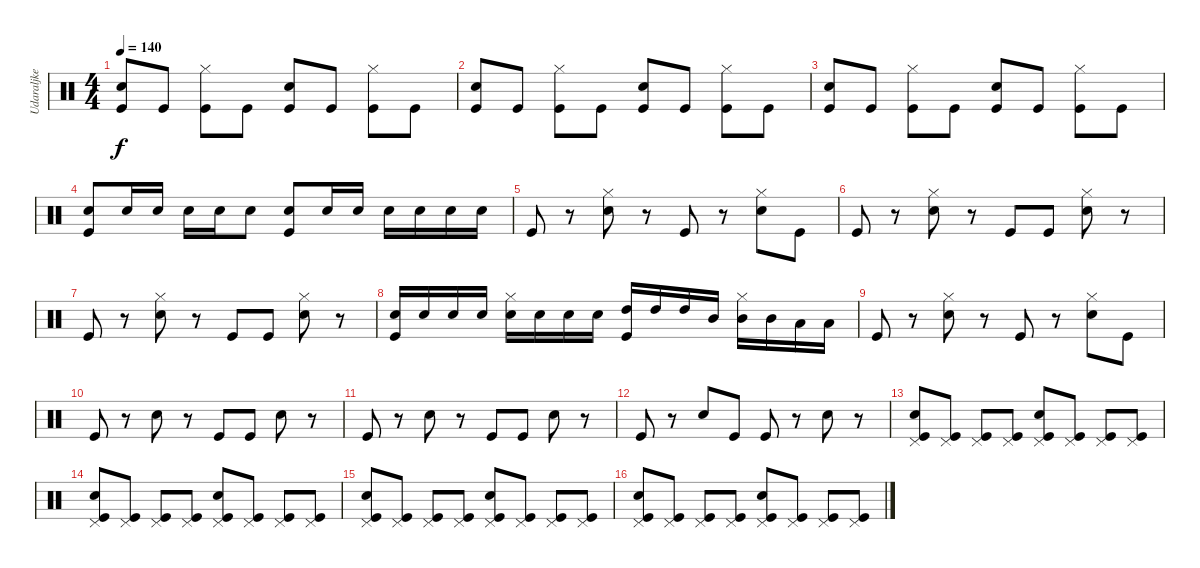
\track ("Udaraljke" "Udaraljke") {instrument percussion}
\staff {score}
\articulation defaults
\ts (4 4)
\tempo 140
\clef neutral
\ks c
("Kick (hit)" "Snare (hit) 2").8{dy f} "Kick (hit)".8 ("Kick (hit)" "Hi-Hat (closed)").8 "Kick (hit)".8 ("Kick (hit)" "Snare (hit) 2").8 "Kick (hit)".8 ("Kick (hit)" "Hi-Hat (closed)").8 "Kick (hit)".8 |
("Kick (hit)" "Snare (hit) 2").8 "Kick (hit)".8 ("Kick (hit)" "Hi-Hat (closed)").8 "Kick (hit)".8 ("Kick (hit)" "Snare (hit) 2").8 "Kick (hit)".8 ("Kick (hit)" "Hi-Hat (closed)").8 "Kick (hit)".8 |
("Kick (hit)" "Snare (hit) 2").8 "Kick (hit)".8 ("Kick (hit)" "Hi-Hat (closed)").8 "Kick (hit)".8 ("Kick (hit)" "Snare (hit) 2").8 "Kick (hit)".8 ("Kick (hit)" "Hi-Hat (closed)").8 "Kick (hit)".8 |
("Kick (hit)" "Snare (hit) 2").8 "Snare (hit) 2".16 "Snare (hit) 2".16 "Snare (hit) 2".16 "Snare (hit) 2".16 "Snare (hit) 2".8 ("Kick (hit)" "Snare (hit) 2").8 "Snare (hit) 2".16 "Snare (hit) 2".16 "Snare (hit) 2".16 "Snare (hit) 2".16 "Snare (hit) 2".16 "Snare (hit) 2".16 |
"Kick (hit)".8 r.8 ("Hi-Hat (closed)" "Snare (hit) 2").8 r.8 "Kick (hit)".8 r.8 ("Hi-Hat (closed)" "Snare (hit) 2").8 "Kick (hit)".8 |
"Kick (hit)".8 r.8 ("Hi-Hat (closed)" "Snare (hit) 2").8 r.8 "Kick (hit)".8 "Kick (hit)".8 ("Hi-Hat (closed)" "Snare (hit) 2").8 r.8 |
"Kick (hit)".8 r.8 ("Hi-Hat (closed)" "Snare (hit) 2").8 r.8 "Kick (hit)".8 "Kick (hit)".8 ("Hi-Hat (closed)" "Snare (hit) 2").8 r.8 |
("Kick (hit)" "Snare (hit) 2").16 "Snare (hit) 2".16 "Snare (hit) 2".16 "Snare (hit) 2".16 ("Hi-Hat (closed)" "Snare (hit) 2").16 "Snare (hit) 2".16 "Snare (hit) 2".16 "Snare (hit) 2".16 ("Kick (hit)" "High Tom (hit)").16 "High Tom (hit)".16 "High Tom (hit)".16 "Mid Tom (hit)".16 ("Hi-Hat (closed)" "Mid Tom (hit)").16 "Mid Tom (hit)".16 "Low Tom (hit)".16 "Low Tom (hit)".16 |
"Kick (hit)".8 r.8 ("Hi-Hat (closed)" "Snare (hit) 2").8 r.8 "Kick (hit)".8 r.8 ("Hi-Hat (closed)" "Snare (hit) 2").8 "Kick (hit)".8 |
"Kick (hit)".8 r.8 "Snare (hit) 2".8 r.8 "Kick (hit)".8 "Kick (hit)".8 "Snare (hit) 2".8 r.8 |
"Kick (hit)".8 r.8 "Snare (hit) 2".8 r.8 "Kick (hit)".8 "Kick (hit)".8 "Snare (hit) 2".8 r.8 |
"Kick (hit)".8 r.8 "Snare (hit) 2".8 "Kick (hit)".8 "Kick (hit)".8 r.8 "Snare (hit) 2".8 r.8 |
("Kick (hit)" "Pedal Hi-Hat (hit)" "Snare (hit) 2").8 ("Kick (hit)" "Pedal Hi-Hat (hit)").8 ("Kick (hit)" "Pedal Hi-Hat (hit)").8 ("Kick (hit)" "Pedal Hi-Hat (hit)").8 ("Kick (hit)" "Pedal Hi-Hat (hit)" "Snare (hit) 2").8 ("Kick (hit)" "Pedal Hi-Hat (hit)").8 ("Kick (hit)" "Pedal Hi-Hat (hit)").8 ("Kick (hit)" "Pedal Hi-Hat (hit)").8 |
("Kick (hit)" "Pedal Hi-Hat (hit)" "Snare (hit) 2").8 ("Kick (hit)" "Pedal Hi-Hat (hit)").8 ("Kick (hit)" "Pedal Hi-Hat (hit)").8 ("Kick (hit)" "Pedal Hi-Hat (hit)").8 ("Kick (hit)" "Pedal Hi-Hat (hit)" "Snare (hit) 2").8 ("Kick (hit)" "Pedal Hi-Hat (hit)").8 ("Kick (hit)" "Pedal Hi-Hat (hit)").8 ("Kick (hit)" "Pedal Hi-Hat (hit)").8 |
("Kick (hit)" "Pedal Hi-Hat (hit)" "Snare (hit) 2").8 ("Kick (hit)" "Pedal Hi-Hat (hit)").8 ("Kick (hit)" "Pedal Hi-Hat (hit)").8 ("Kick (hit)" "Pedal Hi-Hat (hit)").8 ("Kick (hit)" "Pedal Hi-Hat (hit)" "Snare (hit) 2").8 ("Kick (hit)" "Pedal Hi-Hat (hit)").8 ("Kick (hit)" "Pedal Hi-Hat (hit)").8 ("Kick (hit)" "Pedal Hi-Hat (hit)").8 |
("Kick (hit)" "Pedal Hi-Hat (hit)" "Snare (hit) 2").8 ("Kick (hit)" "Pedal Hi-Hat (hit)").8 ("Kick (hit)" "Pedal Hi-Hat (hit)").8 ("Kick (hit)" "Pedal Hi-Hat (hit)").8 ("Kick (hit)" "Pedal Hi-Hat (hit)" "Snare (hit) 2").8 ("Kick (hit)" "Pedal Hi-Hat (hit)").8 ("Kick (hit)" "Pedal Hi-Hat (hit)").8 ("Kick (hit)" "Pedal Hi-Hat (hit)").8
